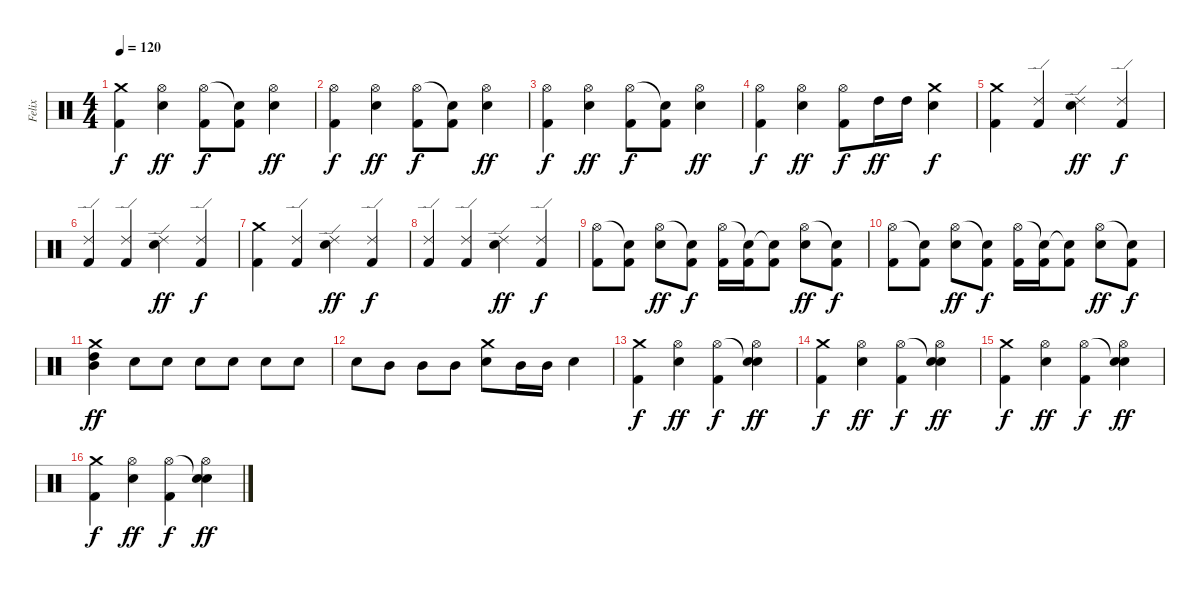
\track ("Felix" "Felix") {instrument percussion}
\staff {score}
\articulation defaults
\ts (4 4)
\tempo 120
\clef neutral
\ks c
("Crash medium (hit)" "Kick (hit) 2").4{dy f} ("Hi-Hat (open)" "Electric Snare (hit)").4{dy ff} ("Hi-Hat (open)" "Kick (hit) 2").8{dy f} ("Snare (hit)"{t} "Kick (hit) 2").8 ("Hi-Hat (open)" "Electric Snare (hit)").4{dy ff} |
("Hi-Hat (open)" "Kick (hit) 2").4{dy f} ("Hi-Hat (open)" "Electric Snare (hit)").4{dy ff} ("Hi-Hat (open)" "Kick (hit) 2").8{dy f} ("Snare (hit)"{t} "Kick (hit) 2").8 ("Hi-Hat (open)" "Electric Snare (hit)").4{dy ff} |
("Hi-Hat (open)" "Kick (hit) 2").4{dy f} ("Hi-Hat (open)" "Electric Snare (hit)").4{dy ff} ("Hi-Hat (open)" "Kick (hit) 2").8{dy f} ("Snare (hit)"{t} "Kick (hit) 2").8 ("Hi-Hat (open)" "Electric Snare (hit)").4{dy ff} |
("Hi-Hat (open)" "Kick (hit) 2").4{dy f} ("Hi-Hat (open)" "Electric Snare (hit)").4{dy ff} ("Hi-Hat (open)" "Kick (hit) 2").8{dy f} "High Tom (hit)".16{dy ff} "High Tom (hit)".16 ("Crash medium (hit)" "Electric Snare (hit)").4{dy f} |
("Crash medium (hit)" "Kick (hit) 2").4 ("Ride (edge) 2" "Kick (hit) 2").4 ("Ride (edge) 2" "Electric Snare (hit)").4{dy ff} ("Ride (edge) 2" "Kick (hit) 2").4{dy f} |
("Ride (edge) 2" "Kick (hit) 2").4 ("Ride (edge) 2" "Kick (hit) 2").4 ("Ride (edge) 2" "Electric Snare (hit)").4{dy ff} ("Ride (edge) 2" "Kick (hit) 2").4{dy f} |
("Crash medium (hit)" "Kick (hit) 2").4 ("Ride (edge) 2" "Kick (hit) 2").4 ("Ride (edge) 2" "Electric Snare (hit)").4{dy ff} ("Ride (edge) 2" "Kick (hit) 2").4{dy f} |
("Ride (edge) 2" "Kick (hit) 2").4 ("Ride (edge) 2" "Kick (hit) 2").4 ("Ride (edge) 2" "Electric Snare (hit)").4{dy ff} ("Ride (edge) 2" "Kick (hit) 2").4{dy f} |
("Hi-Hat (open)" "Kick (hit) 2").8 ("Snare (hit)"{t} "Kick (hit) 2").8 ("Hi-Hat (open)" "Electric Snare (hit)").8{dy ff} ("Snare (hit)"{t} "Kick (hit) 2").8{dy f} ("Hi-Hat (open)" "Kick (hit) 2").16 ("Snare (hit)"{t} "Kick (hit) 2").16 ("Snare (hit)"{t} "Kick (hit) 2").8 ("Hi-Hat (open)" "Electric Snare (hit)").8{dy ff} ("Snare (hit)"{t} "Kick (hit) 2").8{dy f} |
("Hi-Hat (open)" "Kick (hit) 2").8 ("Snare (hit)"{t} "Kick (hit) 2").8 ("Hi-Hat (open)" "Electric Snare (hit)").8{dy ff} ("Snare (hit)"{t} "Kick (hit) 2").8{dy f} ("Hi-Hat (open)" "Kick (hit) 2").16 ("Snare (hit)"{t} "Kick (hit) 2").16 ("Snare (hit)"{t} "Kick (hit) 2").8 ("Hi-Hat (open)" "Electric Snare (hit)").8{dy ff} ("Snare (hit)"{t} "Kick (hit) 2").8{dy f} |
("Crash medium (hit)" "Mid Tom (hit)" "High Tom (hit)").4{dy ff} "Electric Snare (hit)".8 "Electric Snare (hit)".8 "Electric Snare (hit)".8 "Electric Snare (hit)".8 "Electric Snare (hit)".8 "Electric Snare (hit)".8 |
"Electric Snare (hit)".8 "Mid Tom (hit)".8 "Mid Tom (hit)".8 "Mid Tom (hit)".8 ("Crash medium (hit)" "Electric Snare (hit)").8 "Mid Tom (hit)".16 "Mid Tom (hit)".16 "Electric Snare (hit)".4 |
("Crash medium (hit)" "Kick (hit) 2").4{dy f} ("Hi-Hat (open)" "Electric Snare (hit)").4{dy ff} ("Hi-Hat (open)" "Kick (hit) 2").4{dy f} ("Snare (hit)"{t} "Hi-Hat (open)" "Electric Snare (hit)").4{dy ff} |
("Crash medium (hit)" "Kick (hit) 2").4{dy f} ("Hi-Hat (open)" "Electric Snare (hit)").4{dy ff} ("Hi-Hat (open)" "Kick (hit) 2").4{dy f} ("Snare (hit)"{t} "Hi-Hat (open)" "Electric Snare (hit)").4{dy ff} |
("Crash medium (hit)" "Kick (hit) 2").4{dy f} ("Hi-Hat (open)" "Electric Snare (hit)").4{dy ff} ("Hi-Hat (open)" "Kick (hit) 2").4{dy f} ("Snare (hit)"{t} "Hi-Hat (open)" "Electric Snare (hit)").4{dy ff} |
("Crash medium (hit)" "Kick (hit) 2").4{dy f} ("Hi-Hat (open)" "Electric Snare (hit)").4{dy ff} ("Hi-Hat (open)" "Kick (hit) 2").4{dy f} ("Snare (hit)"{t} "Hi-Hat (open)" "Electric Snare (hit)").4{dy ff}
